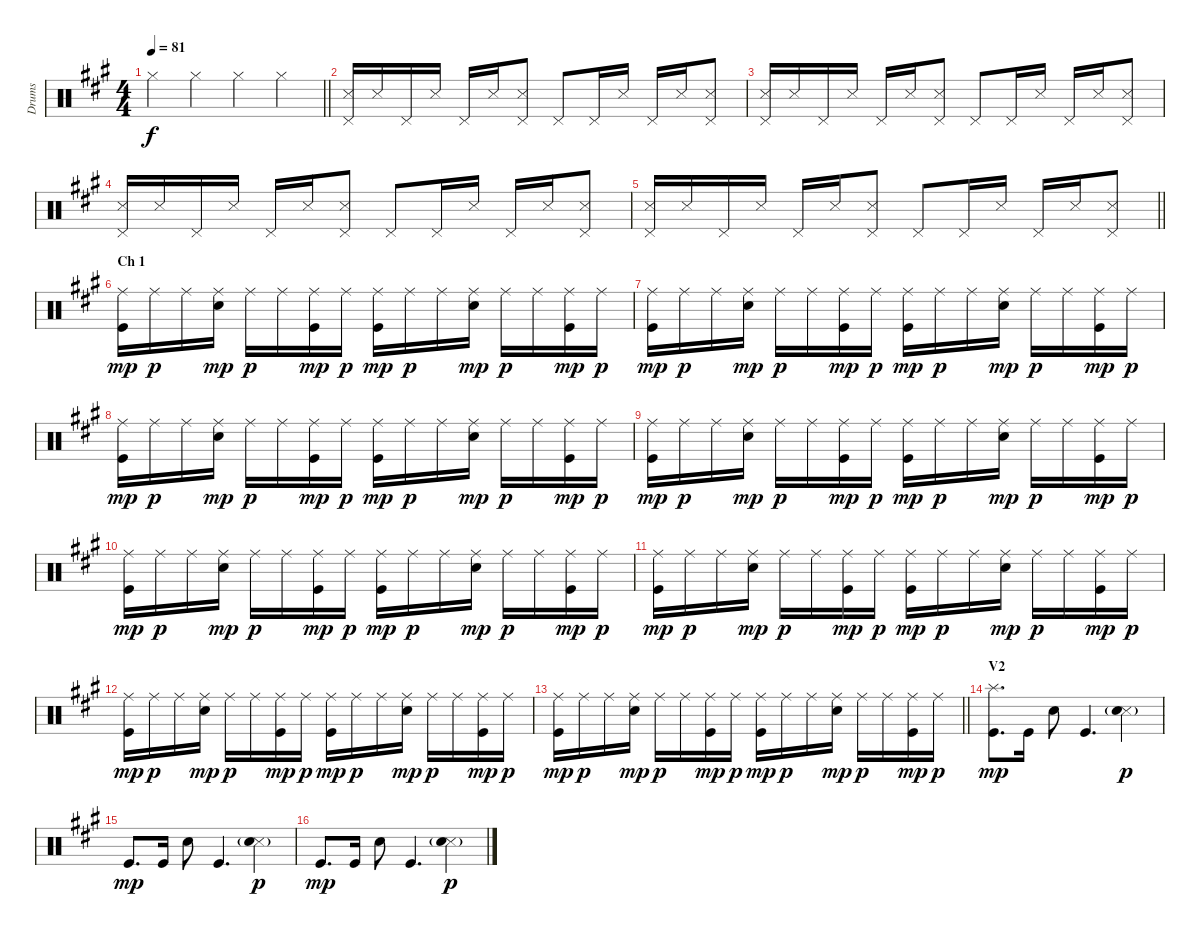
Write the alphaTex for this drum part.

\track ("Drums" "Drums") {instrument percussion}
\staff {score}
\articulation defaults
\ts (4 4)
\tempo 81
\clef neutral
\barLineRight lightlight
\ks f#minor "Hi-Hat (closed)".4{dy f} "Hi-Hat (closed)".4 "Hi-Hat (closed)".4 "Hi-Hat (closed)".4
|
("Pedal Hi-Hat (hit)" "Snare (side stick) 3").16 "Snare (side stick) 3".16 "Pedal Hi-Hat (hit)".16 "Snare (side stick) 3".16 "Pedal Hi-Hat (hit)".16 "Snare (side stick) 3".16 ("Pedal Hi-Hat (hit)" "Snare (side stick) 3").8 "Pedal Hi-Hat (hit)".8 "Pedal Hi-Hat (hit)".16 "Snare (side stick) 3".16 "Pedal Hi-Hat (hit)".16 "Snare (side stick) 3".16 ("Pedal Hi-Hat (hit)" "Snare (side stick) 3").8 |
("Pedal Hi-Hat (hit)" "Snare (side stick) 3").16 "Snare (side stick) 3".16 "Pedal Hi-Hat (hit)".16 "Snare (side stick) 3".16 "Pedal Hi-Hat (hit)".16 "Snare (side stick) 3".16 ("Pedal Hi-Hat (hit)" "Snare (side stick) 3").8 "Pedal Hi-Hat (hit)".8 "Pedal Hi-Hat (hit)".16 "Snare (side stick) 3".16 "Pedal Hi-Hat (hit)".16 "Snare (side stick) 3".16 ("Pedal Hi-Hat (hit)" "Snare (side stick) 3").8 |
("Pedal Hi-Hat (hit)" "Snare (side stick) 3").16 "Snare (side stick) 3".16 "Pedal Hi-Hat (hit)".16 "Snare (side stick) 3".16 "Pedal Hi-Hat (hit)".16 "Snare (side stick) 3".16 ("Pedal Hi-Hat (hit)" "Snare (side stick) 3").8 "Pedal Hi-Hat (hit)".8 "Pedal Hi-Hat (hit)".16 "Snare (side stick) 3".16 "Pedal Hi-Hat (hit)".16 "Snare (side stick) 3".16 ("Pedal Hi-Hat (hit)" "Snare (side stick) 3").8 |
\barLineRight lightlight
("Pedal Hi-Hat (hit)" "Snare (side stick) 3").16 "Snare (side stick) 3".16 "Pedal Hi-Hat (hit)".16 "Snare (side stick) 3".16 "Pedal Hi-Hat (hit)".16 "Snare (side stick) 3".16 ("Pedal Hi-Hat (hit)" "Snare (side stick) 3").8 "Pedal Hi-Hat (hit)".8 "Pedal Hi-Hat (hit)".16 "Snare (side stick) 3".16 "Pedal Hi-Hat (hit)".16 "Snare (side stick) 3".16 ("Pedal Hi-Hat (hit)" "Snare (side stick) 3").8 |
\section ("" "Ch 1")
("Ride (middle)" "Kick (hit)").16{dy mp} "Ride (middle)".16{dy p} "Ride (middle)".16 ("Ride (middle)" "Electric Snare (hit)").16{dy mp} "Ride (middle)".16{dy p} "Ride (middle)".16 ("Ride (middle)" "Kick (hit)").16{dy mp} "Ride (middle)".16{dy p} ("Ride (middle)" "Kick (hit)").16{dy mp} "Ride (middle)".16{dy p} "Ride (middle)".16 ("Ride (middle)" "Electric Snare (hit)").16{dy mp} "Ride (middle)".16{dy p} "Ride (middle)".16 ("Ride (middle)" "Kick (hit)").16{dy mp} "Ride (middle)".16{dy p} |
("Ride (middle)" "Kick (hit)").16{dy mp} "Ride (middle)".16{dy p} "Ride (middle)".16 ("Ride (middle)" "Electric Snare (hit)").16{dy mp} "Ride (middle)".16{dy p} "Ride (middle)".16 ("Ride (middle)" "Kick (hit)").16{dy mp} "Ride (middle)".16{dy p} ("Ride (middle)" "Kick (hit)").16{dy mp} "Ride (middle)".16{dy p} "Ride (middle)".16 ("Ride (middle)" "Electric Snare (hit)").16{dy mp} "Ride (middle)".16{dy p} "Ride (middle)".16 ("Ride (middle)" "Kick (hit)").16{dy mp} "Ride (middle)".16{dy p} |
("Ride (middle)" "Kick (hit)").16{dy mp} "Ride (middle)".16{dy p} "Ride (middle)".16 ("Ride (middle)" "Electric Snare (hit)").16{dy mp} "Ride (middle)".16{dy p} "Ride (middle)".16 ("Ride (middle)" "Kick (hit)").16{dy mp} "Ride (middle)".16{dy p} ("Ride (middle)" "Kick (hit)").16{dy mp} "Ride (middle)".16{dy p} "Ride (middle)".16 ("Ride (middle)" "Electric Snare (hit)").16{dy mp} "Ride (middle)".16{dy p} "Ride (middle)".16 ("Ride (middle)" "Kick (hit)").16{dy mp} "Ride (middle)".16{dy p} |
("Ride (middle)" "Kick (hit)").16{dy mp} "Ride (middle)".16{dy p} "Ride (middle)".16 ("Ride (middle)" "Electric Snare (hit)").16{dy mp} "Ride (middle)".16{dy p} "Ride (middle)".16 ("Ride (middle)" "Kick (hit)").16{dy mp} "Ride (middle)".16{dy p} ("Ride (middle)" "Kick (hit)").16{dy mp} "Ride (middle)".16{dy p} "Ride (middle)".16 ("Ride (middle)" "Electric Snare (hit)").16{dy mp} "Ride (middle)".16{dy p} "Ride (middle)".16 ("Ride (middle)" "Kick (hit)").16{dy mp} "Ride (middle)".16{dy p} |
("Ride (middle)" "Kick (hit)").16{dy mp} "Ride (middle)".16{dy p} "Ride (middle)".16 ("Ride (middle)" "Electric Snare (hit)").16{dy mp} "Ride (middle)".16{dy p} "Ride (middle)".16 ("Ride (middle)" "Kick (hit)").16{dy mp} "Ride (middle)".16{dy p} ("Ride (middle)" "Kick (hit)").16{dy mp} "Ride (middle)".16{dy p} "Ride (middle)".16 ("Ride (middle)" "Electric Snare (hit)").16{dy mp} "Ride (middle)".16{dy p} "Ride (middle)".16 ("Ride (middle)" "Kick (hit)").16{dy mp} "Ride (middle)".16{dy p} |
("Ride (middle)" "Kick (hit)").16{dy mp} "Ride (middle)".16{dy p} "Ride (middle)".16 ("Ride (middle)" "Electric Snare (hit)").16{dy mp} "Ride (middle)".16{dy p} "Ride (middle)".16 ("Ride (middle)" "Kick (hit)").16{dy mp} "Ride (middle)".16{dy p} ("Ride (middle)" "Kick (hit)").16{dy mp} "Ride (middle)".16{dy p} "Ride (middle)".16 ("Ride (middle)" "Electric Snare (hit)").16{dy mp} "Ride (middle)".16{dy p} "Ride (middle)".16 ("Ride (middle)" "Kick (hit)").16{dy mp} "Ride (middle)".16{dy p} |
("Ride (middle)" "Kick (hit)").16{dy mp} "Ride (middle)".16{dy p} "Ride (middle)".16 ("Ride (middle)" "Electric Snare (hit)").16{dy mp} "Ride (middle)".16{dy p} "Ride (middle)".16 ("Ride (middle)" "Kick (hit)").16{dy mp} "Ride (middle)".16{dy p} ("Ride (middle)" "Kick (hit)").16{dy mp} "Ride (middle)".16{dy p} "Ride (middle)".16 ("Ride (middle)" "Electric Snare (hit)").16{dy mp} "Ride (middle)".16{dy p} "Ride (middle)".16 ("Ride (middle)" "Kick (hit)").16{dy mp} "Ride (middle)".16{dy p} |
\barLineRight lightlight
("Ride (middle)" "Kick (hit)").16{dy mp} "Ride (middle)".16{dy p} "Ride (middle)".16 ("Ride (middle)" "Electric Snare (hit)").16{dy mp} "Ride (middle)".16{dy p} "Ride (middle)".16 ("Ride (middle)" "Kick (hit)").16{dy mp} "Ride (middle)".16{dy p} ("Ride (middle)" "Kick (hit)").16{dy mp} "Ride (middle)".16{dy p} "Ride (middle)".16 ("Ride (middle)" "Electric Snare (hit)").16{dy mp} "Ride (middle)".16{dy p} "Ride (middle)".16 ("Ride (middle)" "Kick (hit)").16{dy mp} "Ride (middle)".16{dy p} |
\section ("" "V2")
("Splash (hit)" "Kick (hit)").8{d dy mp} "Kick (hit)".16 "Electric Snare (hit)".8 "Kick (hit)".4{d} ("Snare (side stick) 3" "Electric Snare (hit)"{g}).4{dy p} |
"Kick (hit)".8{d dy mp} "Kick (hit)".16 "Electric Snare (hit)".8 "Kick (hit)".4{d} ("Snare (side stick) 3" "Electric Snare (hit)"{g}).4{dy p} |
"Kick (hit)".8{d dy mp} "Kick (hit)".16 "Electric Snare (hit)".8 "Kick (hit)".4{d} ("Snare (side stick) 3" "Electric Snare (hit)"{g}).4{dy p}
